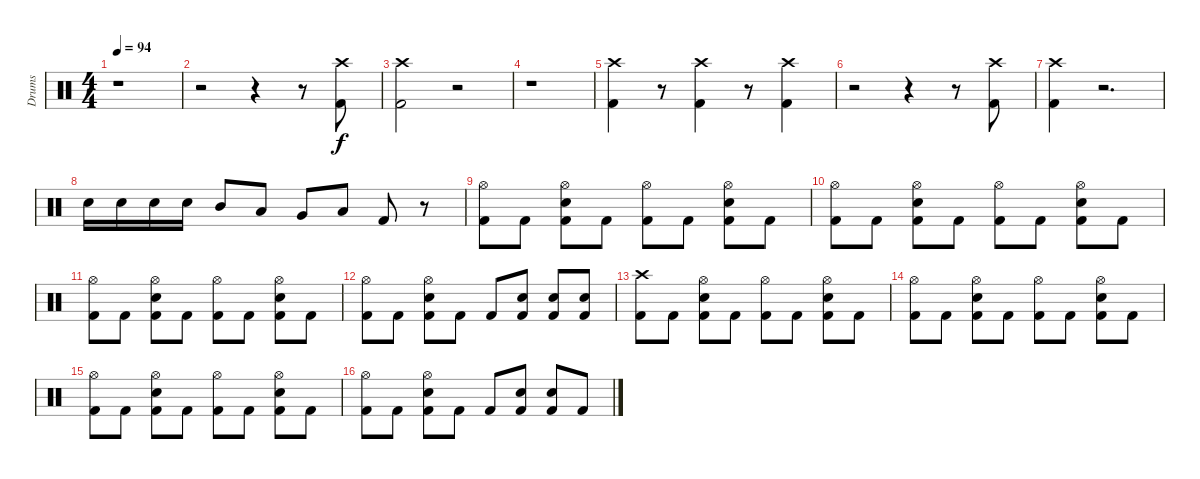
\track ("Drums" "Drums") {instrument percussion}
\staff {score}
\articulation defaults
\ts (4 4)
\tempo 94
\clef neutral
\ks c
r.1{dy f} |
r.2 r.4 r.8 ("Crash high (hit)" "Kick (hit) 2").8 |
("Crash high (hit)" "Kick (hit) 2").2 r.2 |
r.1 |
("Crash high (hit)" "Kick (hit) 2").4 r.8 ("Crash high (hit)" "Kick (hit) 2").4 r.8 ("Crash high (hit)" "Kick (hit) 2").4 |
r.2 r.4 r.8 ("Crash high (hit)" "Kick (hit) 2").8 |
("Crash high (hit)" "Kick (hit) 2").4 r.2{d} |
"Snare (hit) 2".16 "Snare (hit) 2".16 "Snare (hit) 2".16 "Snare (hit) 2".16 "Mid Tom (hit)".8 "Low Tom (hit)".8 "Very Low Tom (hit)".8 "Low Floor Tom (hit)".8 "Kick (hit) 2".8 r.8 |
("Hi-Hat (open)" "Kick (hit) 2").8 "Kick (hit) 2".8 ("Hi-Hat (open)" "Snare (hit) 2" "Kick (hit) 2").8 "Kick (hit) 2".8 ("Hi-Hat (open)" "Kick (hit) 2").8 "Kick (hit) 2".8 ("Hi-Hat (open)" "Snare (hit) 2" "Kick (hit) 2").8 "Kick (hit) 2".8 |
("Hi-Hat (open)" "Kick (hit) 2").8 "Kick (hit) 2".8 ("Hi-Hat (open)" "Snare (hit) 2" "Kick (hit) 2").8 "Kick (hit) 2".8 ("Hi-Hat (open)" "Kick (hit) 2").8 "Kick (hit) 2".8 ("Hi-Hat (open)" "Snare (hit) 2" "Kick (hit) 2").8 "Kick (hit) 2".8 |
("Hi-Hat (open)" "Kick (hit) 2").8 "Kick (hit) 2".8 ("Hi-Hat (open)" "Snare (hit) 2" "Kick (hit) 2").8 "Kick (hit) 2".8 ("Hi-Hat (open)" "Kick (hit) 2").8 "Kick (hit) 2".8 ("Hi-Hat (open)" "Snare (hit) 2" "Kick (hit) 2").8 "Kick (hit) 2".8 |
("Hi-Hat (open)" "Kick (hit) 2").8 "Kick (hit) 2".8 ("Hi-Hat (open)" "Snare (hit) 2" "Kick (hit) 2").8 "Kick (hit) 2".8 "Kick (hit) 2".8 ("Snare (hit) 2" "Kick (hit) 2").8 ("Snare (hit) 2" "Kick (hit) 2").8 ("Snare (hit) 2" "Kick (hit) 2").8 |
("Crash high (hit)" "Kick (hit) 2").8 "Kick (hit) 2".8 ("Hi-Hat (open)" "Snare (hit) 2" "Kick (hit) 2").8 "Kick (hit) 2".8 ("Hi-Hat (open)" "Kick (hit) 2").8 "Kick (hit) 2".8 ("Hi-Hat (open)" "Snare (hit) 2" "Kick (hit) 2").8 "Kick (hit) 2".8 |
("Hi-Hat (open)" "Kick (hit) 2").8 "Kick (hit) 2".8 ("Hi-Hat (open)" "Snare (hit) 2" "Kick (hit) 2").8 "Kick (hit) 2".8 ("Hi-Hat (open)" "Kick (hit) 2").8 "Kick (hit) 2".8 ("Hi-Hat (open)" "Snare (hit) 2" "Kick (hit) 2").8 "Kick (hit) 2".8 |
("Hi-Hat (open)" "Kick (hit) 2").8 "Kick (hit) 2".8 ("Hi-Hat (open)" "Snare (hit) 2" "Kick (hit) 2").8 "Kick (hit) 2".8 ("Hi-Hat (open)" "Kick (hit) 2").8 "Kick (hit) 2".8 ("Hi-Hat (open)" "Snare (hit) 2" "Kick (hit) 2").8 "Kick (hit) 2".8 |
("Hi-Hat (open)" "Kick (hit) 2").8 "Kick (hit) 2".8 ("Hi-Hat (open)" "Snare (hit) 2" "Kick (hit) 2").8 "Kick (hit) 2".8 "Kick (hit) 2".8 ("Snare (hit) 2" "Kick (hit) 2").8 ("Snare (hit) 2" "Kick (hit) 2").8 "Kick (hit) 2".8
